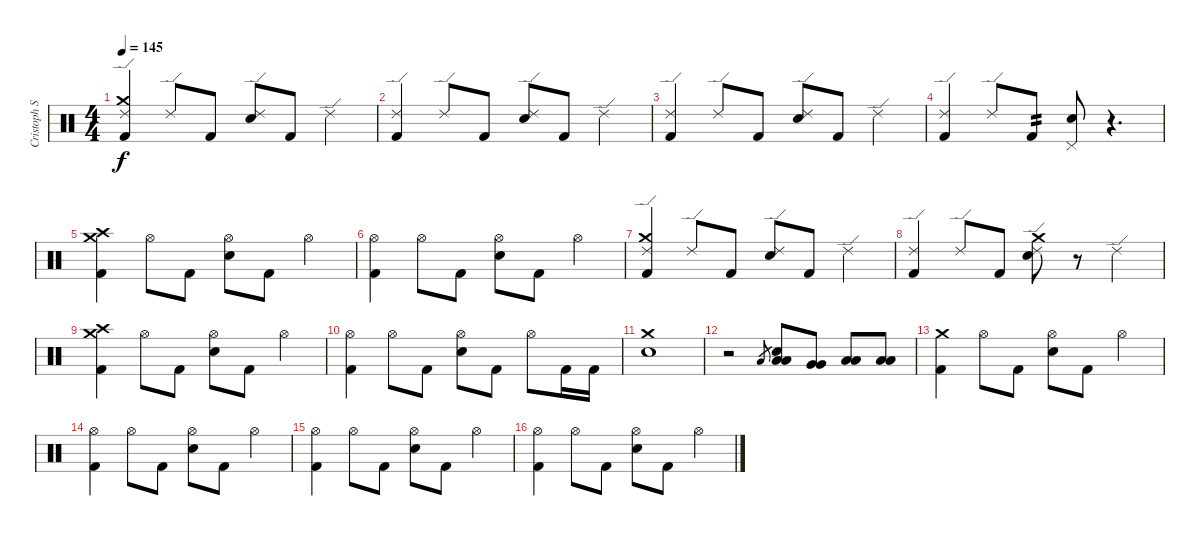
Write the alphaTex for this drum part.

\track ("Cristoph Schneider" "Cristoph S") {instrument percussion}
\staff {score}
\articulation defaults
\ts (4 4)
\tempo 145
\clef neutral
\ks c
("Ride (edge) 2" "Crash medium (hit)" "Kick (hit) 2").4{dy f} "Ride (edge) 2".8 "Kick (hit) 2".8 ("Ride (edge) 2" "Electric Snare (hit)").8 "Kick (hit) 2".8 "Ride (edge) 2".4 |
("Ride (edge) 2" "Kick (hit) 2").4 "Ride (edge) 2".8 "Kick (hit) 2".8 ("Ride (edge) 2" "Electric Snare (hit)").8 "Kick (hit) 2".8 "Ride (edge) 2".4 |
("Ride (edge) 2" "Kick (hit) 2").4 "Ride (edge) 2".8 "Kick (hit) 2".8 ("Ride (edge) 2" "Electric Snare (hit)").8 "Kick (hit) 2".8 "Ride (edge) 2".4 |
("Ride (edge) 2" "Kick (hit) 2").4 "Ride (edge) 2".8 "Kick (hit) 2".8{tp 2} ("Pedal Hi-Hat (hit)" "Electric Snare (hit)").8 r.4{d} |
("Crash high (hit)" "Crash medium (hit)" "Kick (hit) 2").4 "Hi-Hat (open)".8 "Kick (hit) 2".8 ("Hi-Hat (open)" "Electric Snare (hit)").8 "Kick (hit) 2".8 "Hi-Hat (open)".4 |
("Hi-Hat (open)" "Kick (hit) 2").4 "Hi-Hat (open)".8 "Kick (hit) 2".8 ("Hi-Hat (open)" "Electric Snare (hit)").8 "Kick (hit) 2".8 "Hi-Hat (open)".4 |
("Ride (edge) 2" "Crash medium (hit)" "Kick (hit) 2").4 "Ride (edge) 2".8 "Kick (hit) 2".8 ("Ride (edge) 2" "Electric Snare (hit)").8 "Kick (hit) 2".8 "Ride (edge) 2".4 |
("Ride (edge) 2" "Kick (hit) 2").4 "Ride (edge) 2".8 "Kick (hit) 2".8 ("Ride (edge) 2" "Crash medium (hit)" "Electric Snare (hit)").8 r.8 "Ride (edge) 2".4 |
("Crash high (hit)" "Crash medium (hit)" "Kick (hit) 2").4 "Hi-Hat (open)".8 "Kick (hit) 2".8 ("Hi-Hat (open)" "Electric Snare (hit)").8 "Kick (hit) 2".8 "Hi-Hat (open)".4 |
("Kick (hit) 2" "Hi-Hat (open)").4 "Hi-Hat (open)".8 "Kick (hit) 2".8 ("Hi-Hat (open)" "Electric Snare (hit)").8 "Kick (hit) 2".8 "Hi-Hat (open)".8 "Kick (hit) 2".16 "Kick (hit) 2".16 |
("Electric Snare (hit)" "Crash medium (hit)").1 |
r.2 "Low Tom (hit)".8{gr} ("Low Tom (hit)" "Low Tom (hit)" "Electric Snare (hit)").8 ("Very Low Tom (hit)" "Very Low Tom (hit)").8 ("Low Floor Tom (hit)" "Low Floor Tom (hit)").8 ("Low Floor Tom (hit)" "Low Floor Tom (hit)").8 |
("Kick (hit) 2" "Crash medium (hit)").4 "Hi-Hat (open)".8 "Kick (hit) 2".8 ("Hi-Hat (open)" "Snare (hit) 2").8 "Kick (hit) 2".8 "Hi-Hat (open)".4 |
("Kick (hit) 2" "Hi-Hat (open)").4 "Hi-Hat (open)".8 "Kick (hit) 2".8 ("Hi-Hat (open)" "Snare (hit) 2").8 "Kick (hit) 2".8 "Hi-Hat (open)".4 |
("Kick (hit) 2" "Hi-Hat (open)").4 "Hi-Hat (open)".8 "Kick (hit) 2".8 ("Hi-Hat (open)" "Snare (hit) 2").8 "Kick (hit) 2".8 "Hi-Hat (open)".4 |
("Kick (hit) 2" "Hi-Hat (open)").4 "Hi-Hat (open)".8 "Kick (hit) 2".8 ("Hi-Hat (open)" "Snare (hit) 2").8 "Kick (hit) 2".8 "Hi-Hat (open)".4
